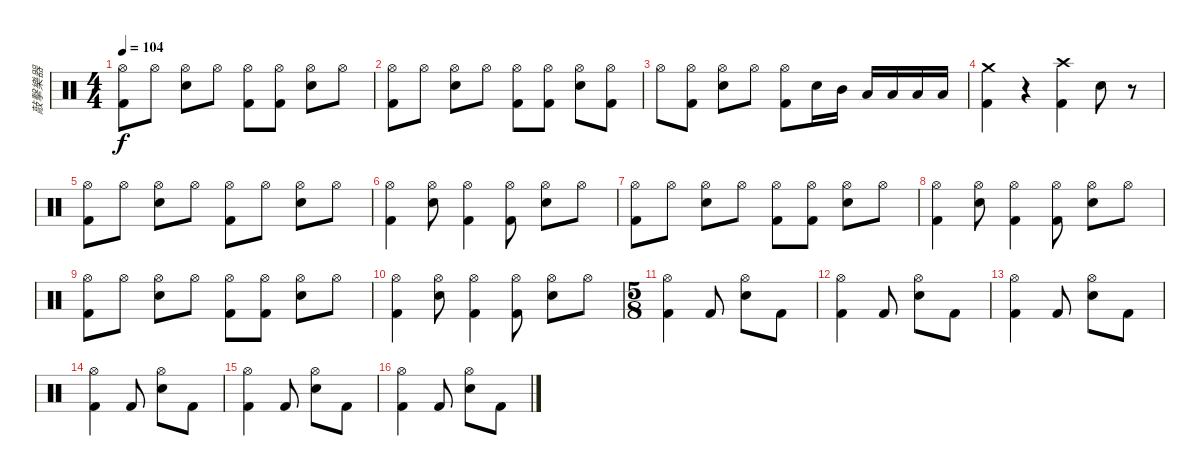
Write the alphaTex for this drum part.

\track ("敲擊樂器" "敲擊樂器") {instrument percussion}
\staff {score}
\articulation defaults
\ts (4 4)
\tempo 104
\clef neutral
\ks c
("Hi-Hat (open)" "Kick (hit) 2").8{dy f} "Hi-Hat (open)".8 ("Hi-Hat (open)" "Electric Snare (hit)").8 "Hi-Hat (open)".8 ("Hi-Hat (open)" "Kick (hit) 2").8 ("Hi-Hat (open)" "Kick (hit) 2").8 ("Hi-Hat (open)" "Electric Snare (hit)").8 "Hi-Hat (open)".8 |
("Hi-Hat (open)" "Kick (hit) 2").8 "Hi-Hat (open)".8 ("Hi-Hat (open)" "Electric Snare (hit)").8 "Hi-Hat (open)".8 ("Hi-Hat (open)" "Kick (hit) 2").8 ("Hi-Hat (open)" "Kick (hit) 2").8 ("Hi-Hat (open)" "Electric Snare (hit)").8 ("Hi-Hat (open)" "Kick (hit) 2").8 |
"Hi-Hat (open)".8 ("Hi-Hat (open)" "Kick (hit) 2").8 ("Hi-Hat (open)" "Electric Snare (hit)").8 "Hi-Hat (open)".8 ("Hi-Hat (open)" "Kick (hit) 2").8 "Electric Snare (hit)".16 "Mid Tom (hit)".16 "Low Tom (hit)".16 "Low Tom (hit)".16 "Low Floor Tom (hit)".16 "Low Floor Tom (hit)".16 |
("Crash medium (hit)" "Kick (hit) 2").4 r.4 ("Crash high (hit)" "Kick (hit) 2").4 "Electric Snare (hit)".8 r.8 |
("Hi-Hat (open)" "Kick (hit) 2").8 "Hi-Hat (open)".8 ("Hi-Hat (open)" "Electric Snare (hit)").8 "Hi-Hat (open)".8 ("Hi-Hat (open)" "Kick (hit) 2").8 "Hi-Hat (open)".8 ("Hi-Hat (open)" "Electric Snare (hit)").8 "Hi-Hat (open)".8 |
("Hi-Hat (open)" "Kick (hit) 2").4 ("Hi-Hat (open)" "Electric Snare (hit)").8 ("Hi-Hat (open)" "Kick (hit) 2").4 ("Hi-Hat (open)" "Kick (hit) 2").8 ("Hi-Hat (open)" "Electric Snare (hit)").8 "Hi-Hat (open)".8 |
("Hi-Hat (open)" "Kick (hit) 2").8 "Hi-Hat (open)".8 ("Hi-Hat (open)" "Electric Snare (hit)").8 "Hi-Hat (open)".8 ("Hi-Hat (open)" "Kick (hit) 2").8 ("Hi-Hat (open)" "Kick (hit) 2").8 ("Hi-Hat (open)" "Electric Snare (hit)").8 "Hi-Hat (open)".8 |
("Hi-Hat (open)" "Kick (hit) 2").4 ("Hi-Hat (open)" "Electric Snare (hit)").8 ("Hi-Hat (open)" "Kick (hit) 2").4 ("Hi-Hat (open)" "Kick (hit) 2").8 ("Hi-Hat (open)" "Electric Snare (hit)").8 "Hi-Hat (open)".8 |
("Hi-Hat (open)" "Kick (hit) 2").8 "Hi-Hat (open)".8 ("Hi-Hat (open)" "Electric Snare (hit)").8 "Hi-Hat (open)".8 ("Hi-Hat (open)" "Kick (hit) 2").8 ("Hi-Hat (open)" "Kick (hit) 2").8 ("Hi-Hat (open)" "Electric Snare (hit)").8 "Hi-Hat (open)".8 |
("Hi-Hat (open)" "Kick (hit) 2").4 ("Hi-Hat (open)" "Electric Snare (hit)").8 ("Hi-Hat (open)" "Kick (hit) 2").4 ("Hi-Hat (open)" "Kick (hit) 2").8 ("Hi-Hat (open)" "Electric Snare (hit)").8 "Hi-Hat (open)".8 |
\ts (5 8)
("Hi-Hat (open)" "Kick (hit) 2").4 "Kick (hit) 2".8 ("Hi-Hat (open)" "Electric Snare (hit)").8 "Kick (hit) 2".8 |
("Hi-Hat (open)" "Kick (hit) 2").4 "Kick (hit) 2".8 ("Hi-Hat (open)" "Electric Snare (hit)").8 "Kick (hit) 2".8 |
("Hi-Hat (open)" "Kick (hit) 2").4 "Kick (hit) 2".8 ("Hi-Hat (open)" "Electric Snare (hit)").8 "Kick (hit) 2".8 |
("Hi-Hat (open)" "Kick (hit) 2").4 "Kick (hit) 2".8 ("Hi-Hat (open)" "Electric Snare (hit)").8 "Kick (hit) 2".8 |
("Hi-Hat (open)" "Kick (hit) 2").4 "Kick (hit) 2".8 ("Hi-Hat (open)" "Snare (hit) 2").8 "Kick (hit) 2".8 |
("Hi-Hat (open)" "Kick (hit) 2").4 "Kick (hit) 2".8 ("Hi-Hat (open)" "Snare (hit) 2").8 "Kick (hit) 2".8
